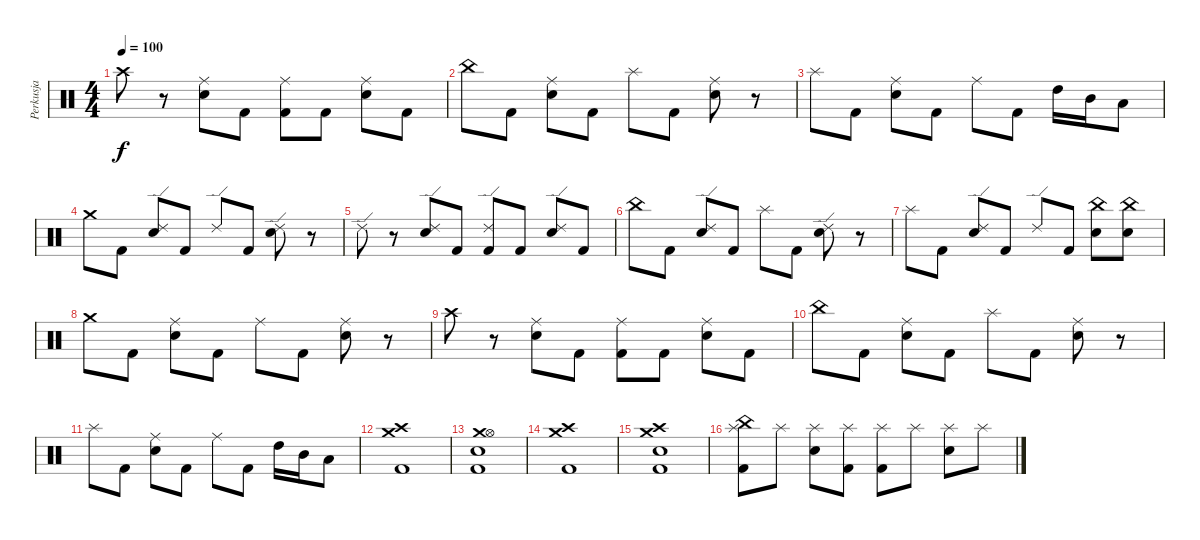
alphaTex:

\track ("Perkusja" "Perkusja") {instrument percussion}
\staff {score}
\articulation defaults
\ts (4 4)
\tempo 100
\clef neutral
\ks c "Crash high (hit)".8{dy f}
r.8 ("Ride (middle)" "Snare (hit) 2").8 "Kick (hit) 2".8 ("Ride (middle)" "Kick (hit) 2").8 "Kick (hit) 2".8 ("Ride (middle)" "Snare (hit) 2").8 "Kick (hit) 2".8 |
"China (hit)".8 "Kick (hit) 2".8 ("Ride (middle)" "Snare (hit) 2").8 "Kick (hit) 2".8 "Splash (hit)".8 "Kick (hit) 2".8 ("Ride (middle)" "Snare (hit) 2").8 r.8 |
"Splash (hit)".8 "Kick (hit) 2".8 ("Ride (middle)" "Snare (hit) 2").8 "Kick (hit) 2".8 "Ride (middle)".8 "Kick (hit) 2".8 "High Tom (hit)".16 "Mid Tom (hit)".16 "Low Tom (hit)".8 |
"Crash medium (hit)".8 "Kick (hit) 2".8 ("Ride (edge) 2" "Snare (hit) 2").8 "Kick (hit) 2".8 "Ride (edge) 2".8 "Kick (hit) 2".8 ("Ride (edge) 2" "Snare (hit) 2").8 r.8 |
"Ride (edge) 2".8 r.8 ("Ride (edge) 2" "Snare (hit) 2").8 "Kick (hit) 2".8 ("Ride (edge) 2" "Kick (hit) 2").8 "Kick (hit) 2".8 ("Ride (edge) 2" "Snare (hit) 2").8 "Kick (hit) 2".8 |
"China (hit)".8 "Kick (hit) 2".8 ("Ride (edge) 2" "Snare (hit) 2").8 "Kick (hit) 2".8 "Splash (hit)".8 "Kick (hit) 2".8 ("Ride (edge) 2" "Snare (hit) 2").8 r.8 |
"Splash (hit)".8 "Kick (hit) 2".8 ("Ride (edge) 2" "Snare (hit) 2").8 "Kick (hit) 2".8 "Ride (edge) 2".8 "Kick (hit) 2".8 ("China (hit)" "Snare (hit) 2").8 ("China (hit)" "Snare (hit) 2").8 |
"Crash medium (hit)".8 "Kick (hit) 2".8 ("Ride (middle)" "Snare (hit) 2").8 "Kick (hit) 2".8 "Ride (middle)".8 "Kick (hit) 2".8 ("Ride (middle)" "Snare (hit) 2").8 r.8 |
"Crash high (hit)".8 r.8 ("Ride (middle)" "Snare (hit) 2").8 "Kick (hit) 2".8 ("Ride (middle)" "Kick (hit) 2").8 "Kick (hit) 2".8 ("Ride (middle)" "Snare (hit) 2").8 "Kick (hit) 2".8 |
"China (hit)".8 "Kick (hit) 2".8 ("Ride (middle)" "Snare (hit) 2").8 "Kick (hit) 2".8 "Splash (hit)".8 "Kick (hit) 2".8 ("Ride (middle)" "Snare (hit) 2").8 r.8 |
"Splash (hit)".8 "Kick (hit) 2".8 ("Ride (middle)" "Snare (hit) 2").8 "Kick (hit) 2".8 "Ride (middle)".8 "Kick (hit) 2".8 "High Tom (hit)".16 "Mid Tom (hit)".16 "Low Tom (hit)".8 |
("Crash medium (hit)" "Crash high (hit)" "Kick (hit) 2").1 |
("Crash medium (hit)" "Hi-Hat (open)" "Kick (hit) 2" "Electric Snare (hit)").1 |
("Crash medium (hit)" "Crash high (hit)" "Kick (hit) 2").1 |
("Crash medium (hit)" "Crash high (hit)" "Kick (hit) 2" "Electric Snare (hit)").1 |
("China (hit)" "Splash (hit)" "Kick (hit) 2").8 "Splash (hit)".8 ("Splash (hit)" "Electric Snare (hit)").8 ("Splash (hit)" "Kick (hit) 2").8 ("Splash (hit)" "Kick (hit) 2").8 "Splash (hit)".8 ("Splash (hit)" "Electric Snare (hit)").8 "Splash (hit)".8
